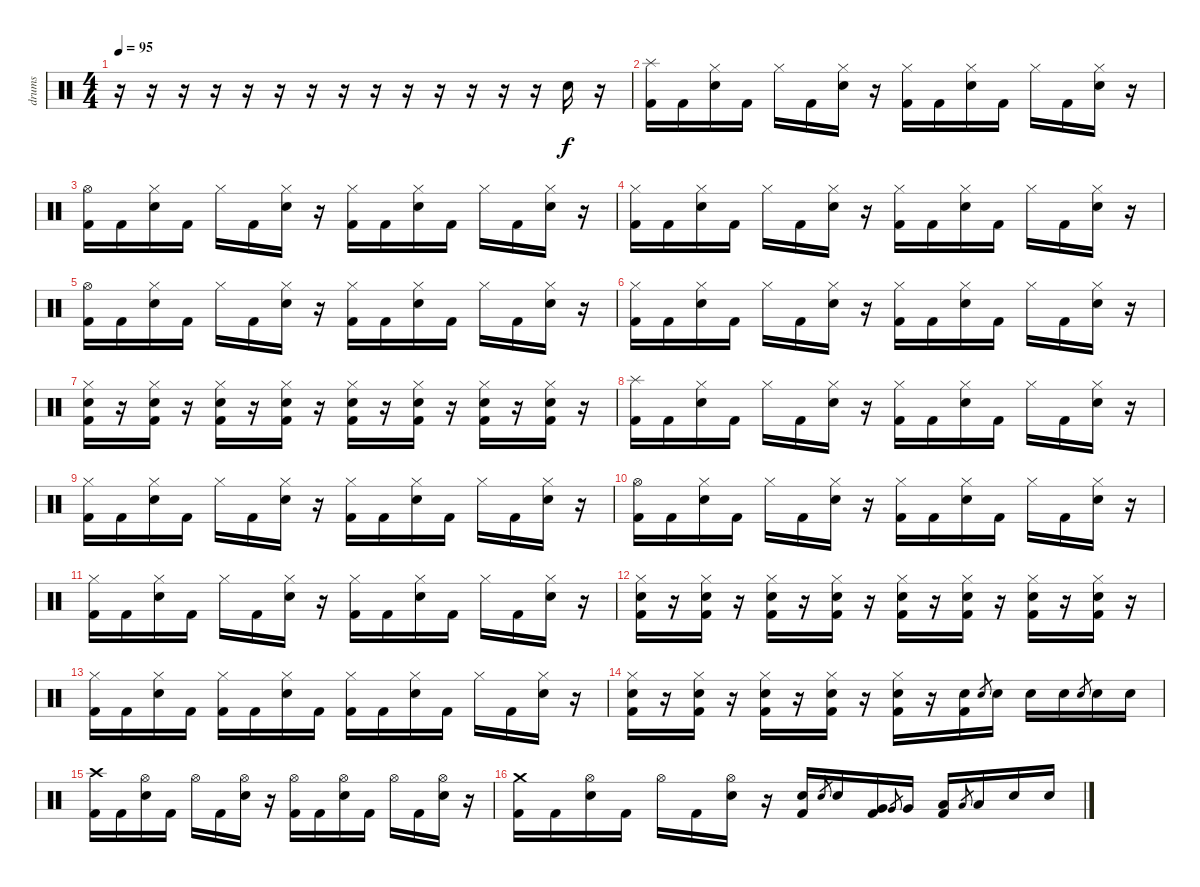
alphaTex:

\track ("drums" "drums") {instrument percussion}
\staff {score}
\articulation defaults
\ts (4 4)
\tempo 95
\clef neutral
\ks c
r.16{dy f} r.16 r.16 r.16 r.16 r.16 r.16 r.16 r.16 r.16 r.16 r.16 r.16 r.16 "Electric Snare (hit)".16 r.16 |
("Kick (hit) 2" "Splash (hit)").16 "Kick (hit) 2".16 ("Electric Snare (hit)" "Hi-Hat (closed)").16 "Kick (hit) 2".16 "Hi-Hat (closed)".16 "Kick (hit) 2".16 ("Electric Snare (hit)" "Hi-Hat (closed)").16 r.16 ("Kick (hit) 2" "Hi-Hat (closed)").16 "Kick (hit) 2".16 ("Electric Snare (hit)" "Hi-Hat (closed)").16 "Kick (hit) 2".16 "Hi-Hat (closed)".16 "Kick (hit) 2".16 ("Electric Snare (hit)" "Hi-Hat (closed)").16 r.16 |
("Kick (hit) 2" "Hi-Hat (open)").16 "Kick (hit) 2".16 ("Electric Snare (hit)" "Hi-Hat (closed)").16 "Kick (hit) 2".16 "Hi-Hat (closed)".16 "Kick (hit) 2".16 ("Electric Snare (hit)" "Hi-Hat (closed)").16 r.16 ("Kick (hit) 2" "Hi-Hat (closed)").16 "Kick (hit) 2".16 ("Electric Snare (hit)" "Hi-Hat (closed)").16 "Kick (hit) 2".16 "Hi-Hat (closed)".16 "Kick (hit) 2".16 ("Electric Snare (hit)" "Hi-Hat (closed)").16 r.16 |
("Kick (hit) 2" "Hi-Hat (closed)").16 "Kick (hit) 2".16 ("Electric Snare (hit)" "Hi-Hat (closed)").16 "Kick (hit) 2".16 "Hi-Hat (closed)".16 "Kick (hit) 2".16 ("Electric Snare (hit)" "Hi-Hat (closed)").16 r.16 ("Kick (hit) 2" "Hi-Hat (closed)").16 "Kick (hit) 2".16 ("Electric Snare (hit)" "Hi-Hat (closed)").16 "Kick (hit) 2".16 "Hi-Hat (closed)".16 "Kick (hit) 2".16 ("Electric Snare (hit)" "Hi-Hat (closed)").16 r.16 |
("Kick (hit) 2" "Hi-Hat (open)").16 "Kick (hit) 2".16 ("Electric Snare (hit)" "Hi-Hat (closed)").16 "Kick (hit) 2".16 "Hi-Hat (closed)".16 "Kick (hit) 2".16 ("Electric Snare (hit)" "Hi-Hat (closed)").16 r.16 ("Kick (hit) 2" "Hi-Hat (closed)").16 "Kick (hit) 2".16 ("Electric Snare (hit)" "Hi-Hat (closed)").16 "Kick (hit) 2".16 "Hi-Hat (closed)".16 "Kick (hit) 2".16 ("Electric Snare (hit)" "Hi-Hat (closed)").16 r.16 |
("Kick (hit) 2" "Hi-Hat (closed)").16 "Kick (hit) 2".16 ("Electric Snare (hit)" "Hi-Hat (closed)").16 "Kick (hit) 2".16 "Hi-Hat (closed)".16 "Kick (hit) 2".16 ("Electric Snare (hit)" "Hi-Hat (closed)").16 r.16 ("Kick (hit) 2" "Hi-Hat (closed)").16 "Kick (hit) 2".16 ("Electric Snare (hit)" "Hi-Hat (closed)").16 "Kick (hit) 2".16 "Hi-Hat (closed)".16 "Kick (hit) 2".16 ("Electric Snare (hit)" "Hi-Hat (closed)").16 r.16 |
("Kick (hit) 2" "Electric Snare (hit)" "Hi-Hat (closed)").16 r.16 ("Kick (hit) 2" "Electric Snare (hit)" "Hi-Hat (closed)").16 r.16 ("Kick (hit) 2" "Electric Snare (hit)" "Hi-Hat (closed)").16 r.16 ("Kick (hit) 2" "Electric Snare (hit)" "Hi-Hat (closed)").16 r.16 ("Kick (hit) 2" "Electric Snare (hit)" "Hi-Hat (closed)").16 r.16 ("Kick (hit) 2" "Electric Snare (hit)" "Hi-Hat (closed)").16 r.16 ("Kick (hit) 2" "Electric Snare (hit)" "Hi-Hat (closed)").16 r.16 ("Kick (hit) 2" "Electric Snare (hit)" "Hi-Hat (closed)").16 r.16 |
("Kick (hit) 2" "Splash (hit)").16 "Kick (hit) 2".16 ("Electric Snare (hit)" "Hi-Hat (closed)").16 "Kick (hit) 2".16 "Hi-Hat (closed)".16 "Kick (hit) 2".16 ("Electric Snare (hit)" "Hi-Hat (closed)").16 r.16 ("Kick (hit) 2" "Hi-Hat (closed)").16 "Kick (hit) 2".16 ("Electric Snare (hit)" "Hi-Hat (closed)").16 "Kick (hit) 2".16 "Hi-Hat (closed)".16 "Kick (hit) 2".16 ("Electric Snare (hit)" "Hi-Hat (closed)").16 r.16 |
("Kick (hit) 2" "Hi-Hat (closed)").16 "Kick (hit) 2".16 ("Electric Snare (hit)" "Hi-Hat (closed)").16 "Kick (hit) 2".16 "Hi-Hat (closed)".16 "Kick (hit) 2".16 ("Electric Snare (hit)" "Hi-Hat (closed)").16 r.16 ("Kick (hit) 2" "Hi-Hat (closed)").16 "Kick (hit) 2".16 ("Electric Snare (hit)" "Hi-Hat (closed)").16 "Kick (hit) 2".16 "Hi-Hat (closed)".16 "Kick (hit) 2".16 ("Electric Snare (hit)" "Hi-Hat (closed)").16 r.16 |
("Kick (hit) 2" "Hi-Hat (open)").16 "Kick (hit) 2".16 ("Electric Snare (hit)" "Hi-Hat (closed)").16 "Kick (hit) 2".16 "Hi-Hat (closed)".16 "Kick (hit) 2".16 ("Electric Snare (hit)" "Hi-Hat (closed)").16 r.16 ("Kick (hit) 2" "Hi-Hat (closed)").16 "Kick (hit) 2".16 ("Electric Snare (hit)" "Hi-Hat (closed)").16 "Kick (hit) 2".16 "Hi-Hat (closed)".16 "Kick (hit) 2".16 ("Electric Snare (hit)" "Hi-Hat (closed)").16 r.16 |
("Kick (hit) 2" "Hi-Hat (closed)").16 "Kick (hit) 2".16 ("Electric Snare (hit)" "Hi-Hat (closed)").16 "Kick (hit) 2".16 "Hi-Hat (closed)".16 "Kick (hit) 2".16 ("Electric Snare (hit)" "Hi-Hat (closed)").16 r.16 ("Kick (hit) 2" "Hi-Hat (closed)").16 "Kick (hit) 2".16 ("Electric Snare (hit)" "Hi-Hat (closed)").16 "Kick (hit) 2".16 "Hi-Hat (closed)".16 "Kick (hit) 2".16 ("Electric Snare (hit)" "Hi-Hat (closed)").16 r.16 |
("Kick (hit) 2" "Electric Snare (hit)" "Hi-Hat (closed)").16 r.16 ("Kick (hit) 2" "Electric Snare (hit)" "Hi-Hat (closed)").16 r.16 ("Kick (hit) 2" "Electric Snare (hit)" "Hi-Hat (closed)").16 r.16 ("Kick (hit) 2" "Electric Snare (hit)" "Hi-Hat (closed)").16 r.16 ("Kick (hit) 2" "Electric Snare (hit)" "Hi-Hat (closed)").16 r.16 ("Kick (hit) 2" "Electric Snare (hit)" "Hi-Hat (closed)").16 r.16 ("Kick (hit) 2" "Electric Snare (hit)" "Hi-Hat (closed)").16 r.16 ("Kick (hit) 2" "Electric Snare (hit)" "Hi-Hat (closed)").16 r.16 |
("Kick (hit) 2" "Hi-Hat (closed)").16 "Kick (hit) 2".16 ("Electric Snare (hit)" "Hi-Hat (closed)").16 "Kick (hit) 2".16 ("Kick (hit) 2" "Hi-Hat (closed)").16 "Kick (hit) 2".16 ("Electric Snare (hit)" "Hi-Hat (closed)").16 "Kick (hit) 2".16 ("Kick (hit) 2" "Hi-Hat (closed)").16 "Kick (hit) 2".16 ("Electric Snare (hit)" "Hi-Hat (closed)").16 "Kick (hit) 2".16 "Hi-Hat (closed)".16 "Kick (hit) 2".16 ("Electric Snare (hit)" "Hi-Hat (closed)").16 r.16 |
("Kick (hit) 2" "Electric Snare (hit)" "Hi-Hat (closed)").16 r.16 ("Kick (hit) 2" "Electric Snare (hit)" "Hi-Hat (closed)").16 r.16 ("Kick (hit) 2" "Electric Snare (hit)" "Hi-Hat (closed)").16 r.16 ("Kick (hit) 2" "Electric Snare (hit)" "Hi-Hat (closed)").16 r.16 ("Kick (hit) 2" "Electric Snare (hit)" "Hi-Hat (closed)").16 r.16 ("Kick (hit) 2" "Electric Snare (hit)").16 "Electric Snare (hit)".8{gr} "Electric Snare (hit)".16 "Electric Snare (hit)".16 "Electric Snare (hit)".16 "Electric Snare (hit)".8{gr} "Electric Snare (hit)".16 "Electric Snare (hit)".16 |
("Kick (hit) 2" "Crash high (hit)").16 "Kick (hit) 2".16 ("Electric Snare (hit)" "Hi-Hat (open)").16 "Kick (hit) 2".16 "Hi-Hat (open)".16 "Kick (hit) 2".16 ("Electric Snare (hit)" "Hi-Hat (open)").16 r.16 ("Kick (hit) 2" "Hi-Hat (open)").16 "Kick (hit) 2".16 ("Electric Snare (hit)" "Hi-Hat (open)").16 "Kick (hit) 2".16 "Hi-Hat (open)".16 "Kick (hit) 2".16 ("Electric Snare (hit)" "Hi-Hat (open)").16 r.16 |
("Kick (hit) 2" "Crash medium (hit)").16 "Kick (hit) 2".16 ("Electric Snare (hit)" "Hi-Hat (open)").16 "Kick (hit) 2".16 "Hi-Hat (open)".16 "Kick (hit) 2".16 ("Electric Snare (hit)" "Hi-Hat (open)").16 r.16 ("Kick (hit) 2" "Electric Snare (hit)").16 "Electric Snare (hit)".8{gr} "Electric Snare (hit)".16 ("Kick (hit) 2" "Very Low Tom (hit)").16 "Very Low Tom (hit)".8{gr} "Very Low Tom (hit)".16 ("Kick (hit) 2" "Low Tom (hit)").16 "Low Tom (hit)".8{gr} "Low Tom (hit)".16 "Electric Snare (hit)".16 "Electric Snare (hit)".16
